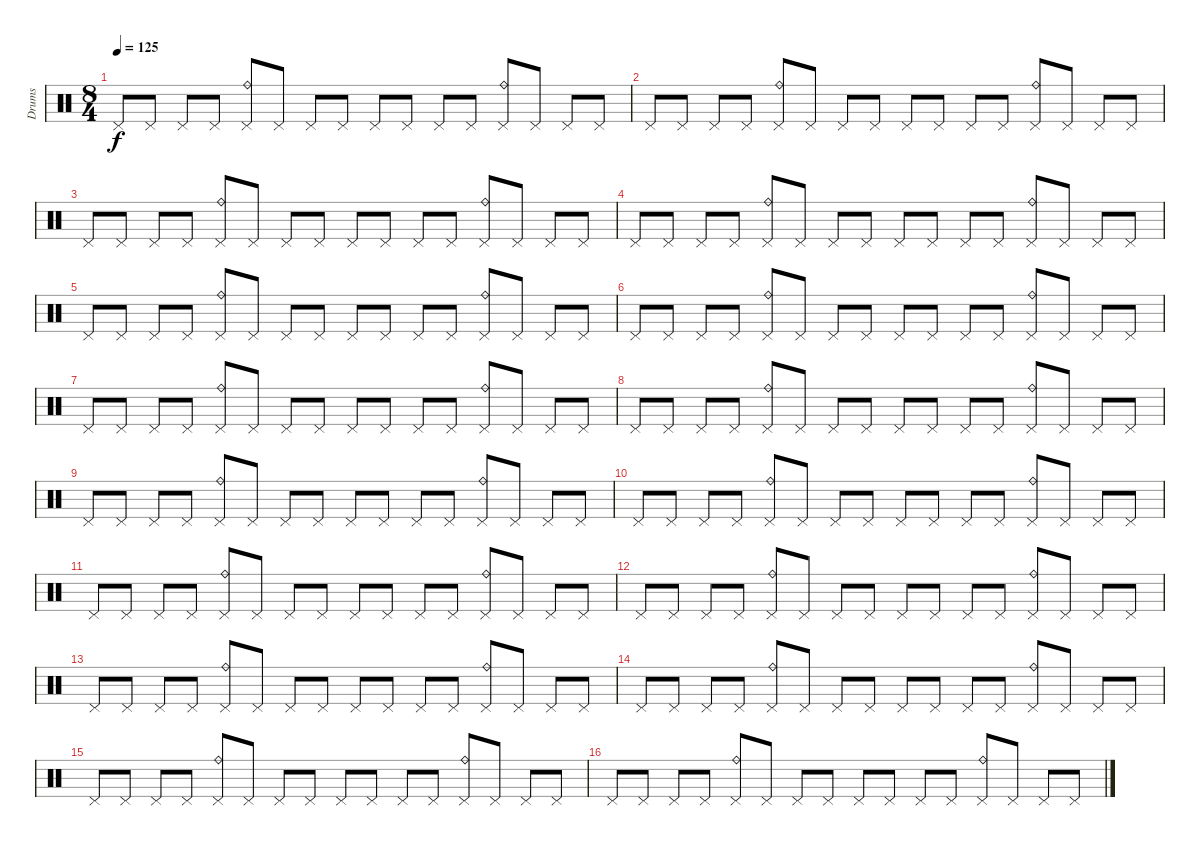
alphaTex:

\track ("Drums" "Drums") {instrument percussion}
\staff {score}
\articulation defaults
\ts (8 4)
\tempo 125
\clef neutral
\ks c "Pedal Hi-Hat (hit)".8{dy f} "Pedal Hi-Hat (hit)".8 "Pedal Hi-Hat (hit)".8 "Pedal Hi-Hat (hit)".8
("Pedal Hi-Hat (hit)" "Ride (bell)").8 "Pedal Hi-Hat (hit)".8 "Pedal Hi-Hat (hit)".8 "Pedal Hi-Hat (hit)".8 "Pedal Hi-Hat (hit)".8 "Pedal Hi-Hat (hit)".8 "Pedal Hi-Hat (hit)".8 "Pedal Hi-Hat (hit)".8 ("Pedal Hi-Hat (hit)" "Ride (bell)").8 "Pedal Hi-Hat (hit)".8 "Pedal Hi-Hat (hit)".8 "Pedal Hi-Hat (hit)".8 |
"Pedal Hi-Hat (hit)".8 "Pedal Hi-Hat (hit)".8 "Pedal Hi-Hat (hit)".8 "Pedal Hi-Hat (hit)".8 ("Pedal Hi-Hat (hit)" "Ride (bell)").8 "Pedal Hi-Hat (hit)".8 "Pedal Hi-Hat (hit)".8 "Pedal Hi-Hat (hit)".8 "Pedal Hi-Hat (hit)".8 "Pedal Hi-Hat (hit)".8 "Pedal Hi-Hat (hit)".8 "Pedal Hi-Hat (hit)".8 ("Pedal Hi-Hat (hit)" "Ride (bell)").8 "Pedal Hi-Hat (hit)".8 "Pedal Hi-Hat (hit)".8 "Pedal Hi-Hat (hit)".8 |
"Pedal Hi-Hat (hit)".8 "Pedal Hi-Hat (hit)".8 "Pedal Hi-Hat (hit)".8 "Pedal Hi-Hat (hit)".8 ("Pedal Hi-Hat (hit)" "Ride (bell)").8 "Pedal Hi-Hat (hit)".8 "Pedal Hi-Hat (hit)".8 "Pedal Hi-Hat (hit)".8 "Pedal Hi-Hat (hit)".8 "Pedal Hi-Hat (hit)".8 "Pedal Hi-Hat (hit)".8 "Pedal Hi-Hat (hit)".8 ("Pedal Hi-Hat (hit)" "Ride (bell)").8 "Pedal Hi-Hat (hit)".8 "Pedal Hi-Hat (hit)".8 "Pedal Hi-Hat (hit)".8 |
"Pedal Hi-Hat (hit)".8 "Pedal Hi-Hat (hit)".8 "Pedal Hi-Hat (hit)".8 "Pedal Hi-Hat (hit)".8 ("Pedal Hi-Hat (hit)" "Ride (bell)").8 "Pedal Hi-Hat (hit)".8 "Pedal Hi-Hat (hit)".8 "Pedal Hi-Hat (hit)".8 "Pedal Hi-Hat (hit)".8 "Pedal Hi-Hat (hit)".8 "Pedal Hi-Hat (hit)".8 "Pedal Hi-Hat (hit)".8 ("Pedal Hi-Hat (hit)" "Ride (bell)").8 "Pedal Hi-Hat (hit)".8 "Pedal Hi-Hat (hit)".8 "Pedal Hi-Hat (hit)".8 |
"Pedal Hi-Hat (hit)".8 "Pedal Hi-Hat (hit)".8 "Pedal Hi-Hat (hit)".8 "Pedal Hi-Hat (hit)".8 ("Pedal Hi-Hat (hit)" "Ride (bell)").8 "Pedal Hi-Hat (hit)".8 "Pedal Hi-Hat (hit)".8 "Pedal Hi-Hat (hit)".8 "Pedal Hi-Hat (hit)".8 "Pedal Hi-Hat (hit)".8 "Pedal Hi-Hat (hit)".8 "Pedal Hi-Hat (hit)".8 ("Pedal Hi-Hat (hit)" "Ride (bell)").8 "Pedal Hi-Hat (hit)".8 "Pedal Hi-Hat (hit)".8 "Pedal Hi-Hat (hit)".8 |
"Pedal Hi-Hat (hit)".8 "Pedal Hi-Hat (hit)".8 "Pedal Hi-Hat (hit)".8 "Pedal Hi-Hat (hit)".8 ("Pedal Hi-Hat (hit)" "Ride (bell)").8 "Pedal Hi-Hat (hit)".8 "Pedal Hi-Hat (hit)".8 "Pedal Hi-Hat (hit)".8 "Pedal Hi-Hat (hit)".8 "Pedal Hi-Hat (hit)".8 "Pedal Hi-Hat (hit)".8 "Pedal Hi-Hat (hit)".8 ("Pedal Hi-Hat (hit)" "Ride (bell)").8 "Pedal Hi-Hat (hit)".8 "Pedal Hi-Hat (hit)".8 "Pedal Hi-Hat (hit)".8 |
"Pedal Hi-Hat (hit)".8 "Pedal Hi-Hat (hit)".8 "Pedal Hi-Hat (hit)".8 "Pedal Hi-Hat (hit)".8 ("Pedal Hi-Hat (hit)" "Ride (bell)").8 "Pedal Hi-Hat (hit)".8 "Pedal Hi-Hat (hit)".8 "Pedal Hi-Hat (hit)".8 "Pedal Hi-Hat (hit)".8 "Pedal Hi-Hat (hit)".8 "Pedal Hi-Hat (hit)".8 "Pedal Hi-Hat (hit)".8 ("Pedal Hi-Hat (hit)" "Ride (bell)").8 "Pedal Hi-Hat (hit)".8 "Pedal Hi-Hat (hit)".8 "Pedal Hi-Hat (hit)".8 |
"Pedal Hi-Hat (hit)".8 "Pedal Hi-Hat (hit)".8 "Pedal Hi-Hat (hit)".8 "Pedal Hi-Hat (hit)".8 ("Pedal Hi-Hat (hit)" "Ride (bell)").8 "Pedal Hi-Hat (hit)".8 "Pedal Hi-Hat (hit)".8 "Pedal Hi-Hat (hit)".8 "Pedal Hi-Hat (hit)".8 "Pedal Hi-Hat (hit)".8 "Pedal Hi-Hat (hit)".8 "Pedal Hi-Hat (hit)".8 ("Pedal Hi-Hat (hit)" "Ride (bell)").8 "Pedal Hi-Hat (hit)".8 "Pedal Hi-Hat (hit)".8 "Pedal Hi-Hat (hit)".8 |
"Pedal Hi-Hat (hit)".8 "Pedal Hi-Hat (hit)".8 "Pedal Hi-Hat (hit)".8 "Pedal Hi-Hat (hit)".8 ("Pedal Hi-Hat (hit)" "Ride (bell)").8 "Pedal Hi-Hat (hit)".8 "Pedal Hi-Hat (hit)".8 "Pedal Hi-Hat (hit)".8 "Pedal Hi-Hat (hit)".8 "Pedal Hi-Hat (hit)".8 "Pedal Hi-Hat (hit)".8 "Pedal Hi-Hat (hit)".8 ("Pedal Hi-Hat (hit)" "Ride (bell)").8 "Pedal Hi-Hat (hit)".8 "Pedal Hi-Hat (hit)".8 "Pedal Hi-Hat (hit)".8 |
"Pedal Hi-Hat (hit)".8 "Pedal Hi-Hat (hit)".8 "Pedal Hi-Hat (hit)".8 "Pedal Hi-Hat (hit)".8 ("Pedal Hi-Hat (hit)" "Ride (bell)").8 "Pedal Hi-Hat (hit)".8 "Pedal Hi-Hat (hit)".8 "Pedal Hi-Hat (hit)".8 "Pedal Hi-Hat (hit)".8 "Pedal Hi-Hat (hit)".8 "Pedal Hi-Hat (hit)".8 "Pedal Hi-Hat (hit)".8 ("Pedal Hi-Hat (hit)" "Ride (bell)").8 "Pedal Hi-Hat (hit)".8 "Pedal Hi-Hat (hit)".8 "Pedal Hi-Hat (hit)".8 |
"Pedal Hi-Hat (hit)".8 "Pedal Hi-Hat (hit)".8 "Pedal Hi-Hat (hit)".8 "Pedal Hi-Hat (hit)".8 ("Pedal Hi-Hat (hit)" "Ride (bell)").8 "Pedal Hi-Hat (hit)".8 "Pedal Hi-Hat (hit)".8 "Pedal Hi-Hat (hit)".8 "Pedal Hi-Hat (hit)".8 "Pedal Hi-Hat (hit)".8 "Pedal Hi-Hat (hit)".8 "Pedal Hi-Hat (hit)".8 ("Pedal Hi-Hat (hit)" "Ride (bell)").8 "Pedal Hi-Hat (hit)".8 "Pedal Hi-Hat (hit)".8 "Pedal Hi-Hat (hit)".8 |
"Pedal Hi-Hat (hit)".8 "Pedal Hi-Hat (hit)".8 "Pedal Hi-Hat (hit)".8 "Pedal Hi-Hat (hit)".8 ("Pedal Hi-Hat (hit)" "Ride (bell)").8 "Pedal Hi-Hat (hit)".8 "Pedal Hi-Hat (hit)".8 "Pedal Hi-Hat (hit)".8 "Pedal Hi-Hat (hit)".8 "Pedal Hi-Hat (hit)".8 "Pedal Hi-Hat (hit)".8 "Pedal Hi-Hat (hit)".8 ("Pedal Hi-Hat (hit)" "Ride (bell)").8 "Pedal Hi-Hat (hit)".8 "Pedal Hi-Hat (hit)".8 "Pedal Hi-Hat (hit)".8 |
"Pedal Hi-Hat (hit)".8 "Pedal Hi-Hat (hit)".8 "Pedal Hi-Hat (hit)".8 "Pedal Hi-Hat (hit)".8 ("Pedal Hi-Hat (hit)" "Ride (bell)").8 "Pedal Hi-Hat (hit)".8 "Pedal Hi-Hat (hit)".8 "Pedal Hi-Hat (hit)".8 "Pedal Hi-Hat (hit)".8 "Pedal Hi-Hat (hit)".8 "Pedal Hi-Hat (hit)".8 "Pedal Hi-Hat (hit)".8 ("Pedal Hi-Hat (hit)" "Ride (bell)").8 "Pedal Hi-Hat (hit)".8 "Pedal Hi-Hat (hit)".8 "Pedal Hi-Hat (hit)".8 |
"Pedal Hi-Hat (hit)".8 "Pedal Hi-Hat (hit)".8 "Pedal Hi-Hat (hit)".8 "Pedal Hi-Hat (hit)".8 ("Pedal Hi-Hat (hit)" "Ride (bell)").8 "Pedal Hi-Hat (hit)".8 "Pedal Hi-Hat (hit)".8 "Pedal Hi-Hat (hit)".8 "Pedal Hi-Hat (hit)".8 "Pedal Hi-Hat (hit)".8 "Pedal Hi-Hat (hit)".8 "Pedal Hi-Hat (hit)".8 ("Pedal Hi-Hat (hit)" "Ride (bell)").8 "Pedal Hi-Hat (hit)".8 "Pedal Hi-Hat (hit)".8 "Pedal Hi-Hat (hit)".8 |
"Pedal Hi-Hat (hit)".8 "Pedal Hi-Hat (hit)".8 "Pedal Hi-Hat (hit)".8 "Pedal Hi-Hat (hit)".8 ("Pedal Hi-Hat (hit)" "Ride (bell)").8 "Pedal Hi-Hat (hit)".8 "Pedal Hi-Hat (hit)".8 "Pedal Hi-Hat (hit)".8 "Pedal Hi-Hat (hit)".8 "Pedal Hi-Hat (hit)".8 "Pedal Hi-Hat (hit)".8 "Pedal Hi-Hat (hit)".8 ("Pedal Hi-Hat (hit)" "Ride (bell)").8 "Pedal Hi-Hat (hit)".8 "Pedal Hi-Hat (hit)".8 "Pedal Hi-Hat (hit)".8 |
"Pedal Hi-Hat (hit)".8 "Pedal Hi-Hat (hit)".8 "Pedal Hi-Hat (hit)".8 "Pedal Hi-Hat (hit)".8 ("Pedal Hi-Hat (hit)" "Ride (bell)").8 "Pedal Hi-Hat (hit)".8 "Pedal Hi-Hat (hit)".8 "Pedal Hi-Hat (hit)".8 "Pedal Hi-Hat (hit)".8 "Pedal Hi-Hat (hit)".8 "Pedal Hi-Hat (hit)".8 "Pedal Hi-Hat (hit)".8 ("Pedal Hi-Hat (hit)" "Ride (bell)").8 "Pedal Hi-Hat (hit)".8 "Pedal Hi-Hat (hit)".8 "Pedal Hi-Hat (hit)".8
